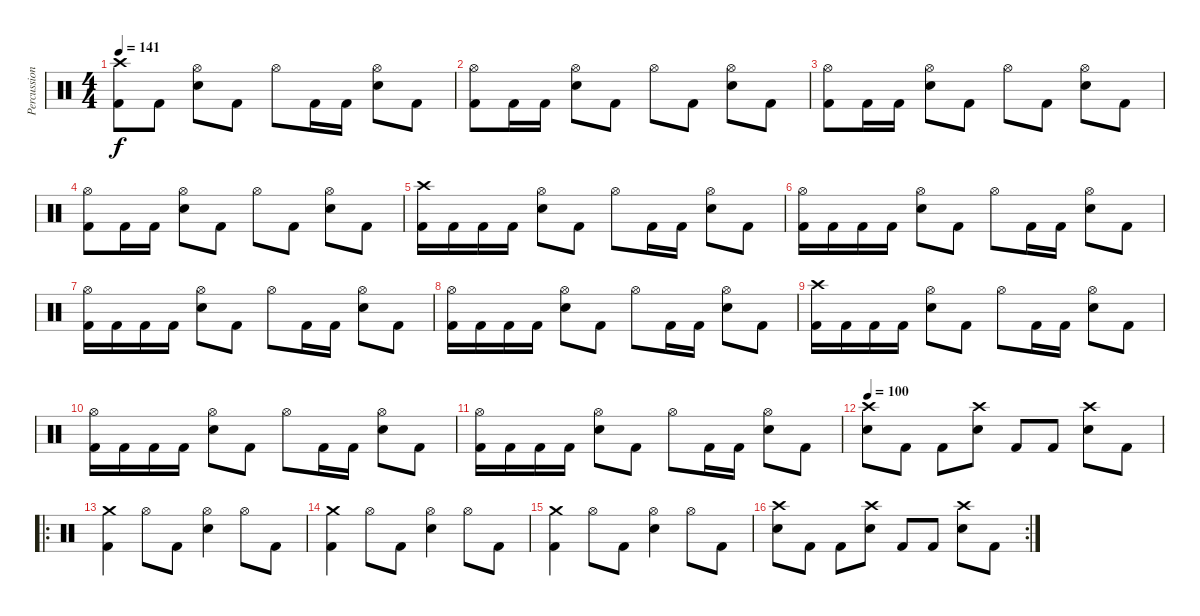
\track ("Percussion" "Percussion") {instrument percussion}
\staff {score}
\articulation defaults
\ts (4 4)
\tempo 141
\clef neutral
\ks c
("Crash high (hit)" "Kick (hit) 2").8{dy f} "Kick (hit) 2".8 ("Hi-Hat (open)" "Electric Snare (hit)").8 "Kick (hit) 2".8 "Hi-Hat (open)".8 "Kick (hit) 2".16 "Kick (hit) 2".16 ("Hi-Hat (open)" "Electric Snare (hit)").8 "Kick (hit) 2".8 |
("Hi-Hat (open)" "Kick (hit) 2").8 "Kick (hit) 2".16 "Kick (hit) 2".16 ("Hi-Hat (open)" "Electric Snare (hit)").8 "Kick (hit) 2".8 "Hi-Hat (open)".8 "Kick (hit) 2".8 ("Hi-Hat (open)" "Electric Snare (hit)").8 "Kick (hit) 2".8 |
("Hi-Hat (open)" "Kick (hit) 2").8 "Kick (hit) 2".16 "Kick (hit) 2".16 ("Hi-Hat (open)" "Electric Snare (hit)").8 "Kick (hit) 2".8 "Hi-Hat (open)".8 "Kick (hit) 2".8 ("Hi-Hat (open)" "Electric Snare (hit)").8 "Kick (hit) 2".8 |
("Hi-Hat (open)" "Kick (hit) 2").8 "Kick (hit) 2".16 "Kick (hit) 2".16 ("Hi-Hat (open)" "Electric Snare (hit)").8 "Kick (hit) 2".8 "Hi-Hat (open)".8 "Kick (hit) 2".8 ("Hi-Hat (open)" "Electric Snare (hit)").8 "Kick (hit) 2".8 |
("Crash high (hit)" "Kick (hit) 2").16 "Kick (hit) 2".16 "Kick (hit) 2".16 "Kick (hit) 2".16 ("Hi-Hat (open)" "Electric Snare (hit)").8 "Kick (hit) 2".8 "Hi-Hat (open)".8 "Kick (hit) 2".16 "Kick (hit) 2".16 ("Hi-Hat (open)" "Electric Snare (hit)").8 "Kick (hit) 2".8 |
("Hi-Hat (open)" "Kick (hit) 2").16 "Kick (hit) 2".16 "Kick (hit) 2".16 "Kick (hit) 2".16 ("Hi-Hat (open)" "Electric Snare (hit)").8 "Kick (hit) 2".8 "Hi-Hat (open)".8 "Kick (hit) 2".16 "Kick (hit) 2".16 ("Hi-Hat (open)" "Electric Snare (hit)").8 "Kick (hit) 2".8 |
("Hi-Hat (open)" "Kick (hit) 2").16 "Kick (hit) 2".16 "Kick (hit) 2".16 "Kick (hit) 2".16 ("Hi-Hat (open)" "Electric Snare (hit)").8 "Kick (hit) 2".8 "Hi-Hat (open)".8 "Kick (hit) 2".16 "Kick (hit) 2".16 ("Hi-Hat (open)" "Electric Snare (hit)").8 "Kick (hit) 2".8 |
("Hi-Hat (open)" "Kick (hit) 2").16 "Kick (hit) 2".16 "Kick (hit) 2".16 "Kick (hit) 2".16 ("Hi-Hat (open)" "Electric Snare (hit)").8 "Kick (hit) 2".8 "Hi-Hat (open)".8 "Kick (hit) 2".16 "Kick (hit) 2".16 ("Hi-Hat (open)" "Electric Snare (hit)").8 "Kick (hit) 2".8 |
("Crash high (hit)" "Kick (hit) 2").16 "Kick (hit) 2".16 "Kick (hit) 2".16 "Kick (hit) 2".16 ("Hi-Hat (open)" "Electric Snare (hit)").8 "Kick (hit) 2".8 "Hi-Hat (open)".8 "Kick (hit) 2".16 "Kick (hit) 2".16 ("Hi-Hat (open)" "Electric Snare (hit)").8 "Kick (hit) 2".8 |
("Hi-Hat (open)" "Kick (hit) 2").16 "Kick (hit) 2".16 "Kick (hit) 2".16 "Kick (hit) 2".16 ("Hi-Hat (open)" "Electric Snare (hit)").8 "Kick (hit) 2".8 "Hi-Hat (open)".8 "Kick (hit) 2".16 "Kick (hit) 2".16 ("Hi-Hat (open)" "Electric Snare (hit)").8 "Kick (hit) 2".8 |
("Hi-Hat (open)" "Kick (hit) 2").16 "Kick (hit) 2".16 "Kick (hit) 2".16 "Kick (hit) 2".16 ("Hi-Hat (open)" "Electric Snare (hit)").8 "Kick (hit) 2".8 "Hi-Hat (open)".8 "Kick (hit) 2".16 "Kick (hit) 2".16 ("Hi-Hat (open)" "Electric Snare (hit)").8 "Kick (hit) 2".8 |
\tempo 100
("Crash high (hit)" "Electric Snare (hit)").8 "Kick (hit) 2".8 "Kick (hit) 2".8 ("Crash high (hit)" "Electric Snare (hit)").8 "Kick (hit) 2".8 "Kick (hit) 2".8 ("Crash high (hit)" "Electric Snare (hit)").8 "Kick (hit) 2".8 |
\ro
("Crash medium (hit)" "Kick (hit) 2").4 "Hi-Hat (open)".8 "Kick (hit) 2".8 ("Hi-Hat (open)" "Electric Snare (hit)").4 "Hi-Hat (open)".8 "Kick (hit) 2".8 |
("Crash medium (hit)" "Kick (hit) 2").4 "Hi-Hat (open)".8 "Kick (hit) 2".8 ("Hi-Hat (open)" "Electric Snare (hit)").4 "Hi-Hat (open)".8 "Kick (hit) 2".8 |
("Crash medium (hit)" "Kick (hit) 2").4 "Hi-Hat (open)".8 "Kick (hit) 2".8 ("Hi-Hat (open)" "Electric Snare (hit)").4 "Hi-Hat (open)".8 "Kick (hit) 2".8 |
\rc 2
("Crash high (hit)" "Electric Snare (hit)").8 "Kick (hit) 2".8 "Kick (hit) 2".8 ("Crash high (hit)" "Electric Snare (hit)").8 "Kick (hit) 2".8 "Kick (hit) 2".8 ("Crash high (hit)" "Electric Snare (hit)").8 "Kick (hit) 2".8
